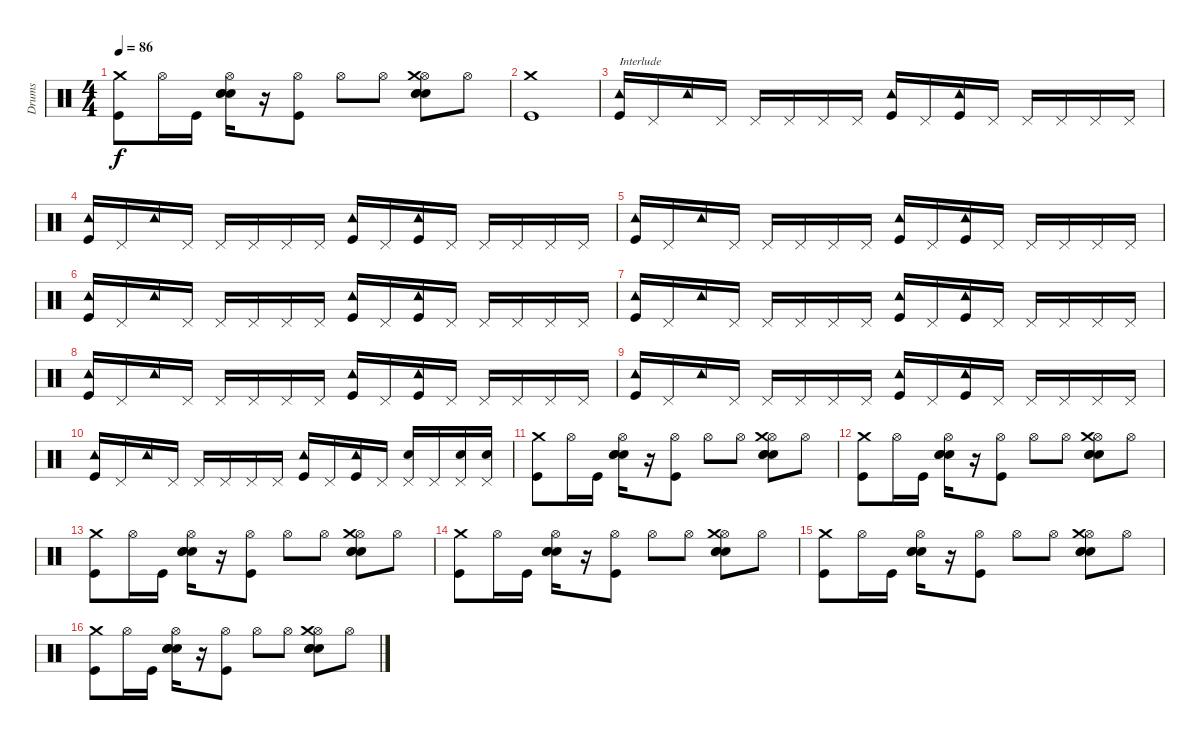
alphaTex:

\track ("Drums" "Drums") {instrument percussion}
\staff {score}
\articulation defaults
\ts (4 4)
\tempo 86
\clef neutral
\ks c
("Kick (hit)" "Crash medium (hit)").8{dy f} "Hi-Hat (open)".16 "Kick (hit)".16 ("Electric Snare (hit)" "Hi-Hat (open)" "Electric Snare (hit)" "Electric Snare (hit)").16 r.16 ("Kick (hit)" "Hi-Hat (open)").8 "Hi-Hat (open)".8 "Hi-Hat (open)".8 ("Electric Snare (hit)" "Hi-Hat (open)" "Electric Snare (hit)" "Electric Snare (hit)" "Crash medium (hit)").8 "Hi-Hat (open)".8 |
("Kick (hit)" "Crash medium (hit)").1 |
("Tambourine (hit)" "Kick (hit)").16{txt "Interlude"} "Pedal Hi-Hat (hit)".16 "Tambourine (hit)".16 "Pedal Hi-Hat (hit)".16 "Pedal Hi-Hat (hit)".16 "Pedal Hi-Hat (hit)".16 "Pedal Hi-Hat (hit)".16 "Pedal Hi-Hat (hit)".16 ("Kick (hit)" "Tambourine (hit)").16 "Pedal Hi-Hat (hit)".16 ("Kick (hit)" "Tambourine (hit)").16 "Pedal Hi-Hat (hit)".16 "Pedal Hi-Hat (hit)".16 "Pedal Hi-Hat (hit)".16 "Pedal Hi-Hat (hit)".16 "Pedal Hi-Hat (hit)".16 |
("Tambourine (hit)" "Kick (hit)").16 "Pedal Hi-Hat (hit)".16 "Tambourine (hit)".16 "Pedal Hi-Hat (hit)".16 "Pedal Hi-Hat (hit)".16 "Pedal Hi-Hat (hit)".16 "Pedal Hi-Hat (hit)".16 "Pedal Hi-Hat (hit)".16 ("Kick (hit)" "Tambourine (hit)").16 "Pedal Hi-Hat (hit)".16 ("Kick (hit)" "Tambourine (hit)").16 "Pedal Hi-Hat (hit)".16 "Pedal Hi-Hat (hit)".16 "Pedal Hi-Hat (hit)".16 "Pedal Hi-Hat (hit)".16 "Pedal Hi-Hat (hit)".16 |
("Tambourine (hit)" "Kick (hit)").16 "Pedal Hi-Hat (hit)".16 "Tambourine (hit)".16 "Pedal Hi-Hat (hit)".16 "Pedal Hi-Hat (hit)".16 "Pedal Hi-Hat (hit)".16 "Pedal Hi-Hat (hit)".16 "Pedal Hi-Hat (hit)".16 ("Kick (hit)" "Tambourine (hit)").16 "Pedal Hi-Hat (hit)".16 ("Kick (hit)" "Tambourine (hit)").16 "Pedal Hi-Hat (hit)".16 "Pedal Hi-Hat (hit)".16 "Pedal Hi-Hat (hit)".16 "Pedal Hi-Hat (hit)".16 "Pedal Hi-Hat (hit)".16 |
("Tambourine (hit)" "Kick (hit)").16 "Pedal Hi-Hat (hit)".16 "Tambourine (hit)".16 "Pedal Hi-Hat (hit)".16 "Pedal Hi-Hat (hit)".16 "Pedal Hi-Hat (hit)".16 "Pedal Hi-Hat (hit)".16 "Pedal Hi-Hat (hit)".16 ("Kick (hit)" "Tambourine (hit)").16 "Pedal Hi-Hat (hit)".16 ("Kick (hit)" "Tambourine (hit)").16 "Pedal Hi-Hat (hit)".16 "Pedal Hi-Hat (hit)".16 "Pedal Hi-Hat (hit)".16 "Pedal Hi-Hat (hit)".16 "Pedal Hi-Hat (hit)".16 |
("Tambourine (hit)" "Kick (hit)").16 "Pedal Hi-Hat (hit)".16 "Tambourine (hit)".16 "Pedal Hi-Hat (hit)".16 "Pedal Hi-Hat (hit)".16 "Pedal Hi-Hat (hit)".16 "Pedal Hi-Hat (hit)".16 "Pedal Hi-Hat (hit)".16 ("Kick (hit)" "Tambourine (hit)").16 "Pedal Hi-Hat (hit)".16 ("Kick (hit)" "Tambourine (hit)").16 "Pedal Hi-Hat (hit)".16 "Pedal Hi-Hat (hit)".16 "Pedal Hi-Hat (hit)".16 "Pedal Hi-Hat (hit)".16 "Pedal Hi-Hat (hit)".16 |
("Tambourine (hit)" "Kick (hit)").16 "Pedal Hi-Hat (hit)".16 "Tambourine (hit)".16 "Pedal Hi-Hat (hit)".16 "Pedal Hi-Hat (hit)".16 "Pedal Hi-Hat (hit)".16 "Pedal Hi-Hat (hit)".16 "Pedal Hi-Hat (hit)".16 ("Kick (hit)" "Tambourine (hit)").16 "Pedal Hi-Hat (hit)".16 ("Kick (hit)" "Tambourine (hit)").16 "Pedal Hi-Hat (hit)".16 "Pedal Hi-Hat (hit)".16 "Pedal Hi-Hat (hit)".16 "Pedal Hi-Hat (hit)".16 "Pedal Hi-Hat (hit)".16 |
("Tambourine (hit)" "Kick (hit)").16 "Pedal Hi-Hat (hit)".16 "Tambourine (hit)".16 "Pedal Hi-Hat (hit)".16 "Pedal Hi-Hat (hit)".16 "Pedal Hi-Hat (hit)".16 "Pedal Hi-Hat (hit)".16 "Pedal Hi-Hat (hit)".16 ("Kick (hit)" "Tambourine (hit)").16 "Pedal Hi-Hat (hit)".16 ("Kick (hit)" "Tambourine (hit)").16 "Pedal Hi-Hat (hit)".16 "Pedal Hi-Hat (hit)".16 "Pedal Hi-Hat (hit)".16 "Pedal Hi-Hat (hit)".16 "Pedal Hi-Hat (hit)".16 |
("Tambourine (hit)" "Kick (hit)").16 "Pedal Hi-Hat (hit)".16 "Tambourine (hit)".16 "Pedal Hi-Hat (hit)".16 "Pedal Hi-Hat (hit)".16 "Pedal Hi-Hat (hit)".16 "Pedal Hi-Hat (hit)".16 "Pedal Hi-Hat (hit)".16 ("Kick (hit)" "Tambourine (hit)").16 "Pedal Hi-Hat (hit)".16 ("Kick (hit)" "Tambourine (hit)").16 "Pedal Hi-Hat (hit)".16 ("Pedal Hi-Hat (hit)" "Electric Snare (hit)").16 "Pedal Hi-Hat (hit)".16 ("Pedal Hi-Hat (hit)" "Electric Snare (hit)").16 ("Pedal Hi-Hat (hit)" "Electric Snare (hit)").16 |
("Kick (hit)" "Crash medium (hit)").8 "Hi-Hat (open)".16 "Kick (hit)".16 ("Electric Snare (hit)" "Hi-Hat (open)" "Electric Snare (hit)" "Electric Snare (hit)").16 r.16 ("Kick (hit)" "Hi-Hat (open)").8 "Hi-Hat (open)".8 "Hi-Hat (open)".8 ("Electric Snare (hit)" "Hi-Hat (open)" "Electric Snare (hit)" "Electric Snare (hit)" "Crash medium (hit)").8 "Hi-Hat (open)".8 |
("Kick (hit)" "Crash medium (hit)").8 "Hi-Hat (open)".16 "Kick (hit)".16 ("Electric Snare (hit)" "Hi-Hat (open)" "Electric Snare (hit)" "Electric Snare (hit)").16 r.16 ("Kick (hit)" "Hi-Hat (open)").8 "Hi-Hat (open)".8 "Hi-Hat (open)".8 ("Electric Snare (hit)" "Hi-Hat (open)" "Electric Snare (hit)" "Electric Snare (hit)" "Crash medium (hit)").8 "Hi-Hat (open)".8 |
("Kick (hit)" "Crash medium (hit)").8 "Hi-Hat (open)".16 "Kick (hit)".16 ("Electric Snare (hit)" "Hi-Hat (open)" "Electric Snare (hit)" "Electric Snare (hit)").16 r.16 ("Kick (hit)" "Hi-Hat (open)").8 "Hi-Hat (open)".8 "Hi-Hat (open)".8 ("Electric Snare (hit)" "Hi-Hat (open)" "Electric Snare (hit)" "Electric Snare (hit)" "Crash medium (hit)").8 "Hi-Hat (open)".8 |
("Kick (hit)" "Crash medium (hit)").8 "Hi-Hat (open)".16 "Kick (hit)".16 ("Electric Snare (hit)" "Hi-Hat (open)" "Electric Snare (hit)" "Electric Snare (hit)").16 r.16 ("Kick (hit)" "Hi-Hat (open)").8 "Hi-Hat (open)".8 "Hi-Hat (open)".8 ("Electric Snare (hit)" "Hi-Hat (open)" "Electric Snare (hit)" "Electric Snare (hit)" "Crash medium (hit)").8 "Hi-Hat (open)".8 |
("Kick (hit)" "Crash medium (hit)").8 "Hi-Hat (open)".16 "Kick (hit)".16 ("Electric Snare (hit)" "Hi-Hat (open)" "Electric Snare (hit)" "Electric Snare (hit)").16 r.16 ("Kick (hit)" "Hi-Hat (open)").8 "Hi-Hat (open)".8 "Hi-Hat (open)".8 ("Electric Snare (hit)" "Hi-Hat (open)" "Electric Snare (hit)" "Electric Snare (hit)" "Crash medium (hit)").8 "Hi-Hat (open)".8 |
("Kick (hit)" "Crash medium (hit)").8 "Hi-Hat (open)".16 "Kick (hit)".16 ("Electric Snare (hit)" "Hi-Hat (open)" "Electric Snare (hit)" "Electric Snare (hit)").16 r.16 ("Kick (hit)" "Hi-Hat (open)").8 "Hi-Hat (open)".8 "Hi-Hat (open)".8 ("Electric Snare (hit)" "Hi-Hat (open)" "Electric Snare (hit)" "Electric Snare (hit)" "Crash medium (hit)").8 "Hi-Hat (open)".8
